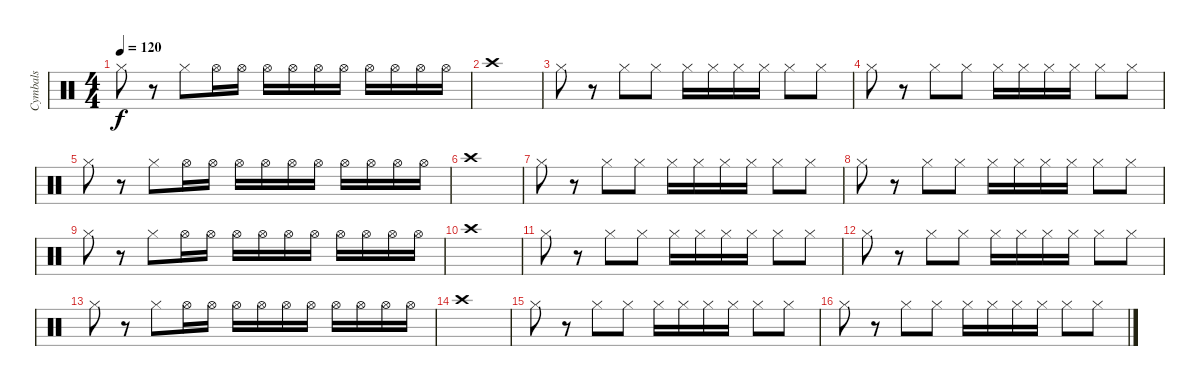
\track ("Cymbals" "Cymbals") {instrument percussion}
\staff {score}
\articulation defaults
\ts (4 4)
\tempo 120
\clef neutral
\ks c "Hi-Hat (closed)".8{dy f volume 8}
r.8 "Hi-Hat (closed)".8 "Hi-Hat (open)".16 "Hi-Hat (open)".16 "Hi-Hat (open)".16 "Hi-Hat (open)".16 "Hi-Hat (open)".16 "Hi-Hat (open)".16 "Hi-Hat (open)".16 "Hi-Hat (open)".16 "Hi-Hat (open)".16 "Hi-Hat (open)".16 |
"Crash high (hit)".1 |
"Hi-Hat (closed)".8 r.8 "Hi-Hat (closed)".8 "Hi-Hat (closed)".8 "Hi-Hat (closed)".16 "Hi-Hat (closed)".16 "Hi-Hat (closed)".16 "Hi-Hat (closed)".16 "Hi-Hat (closed)".8 "Hi-Hat (closed)".8 |
"Hi-Hat (closed)".8 r.8 "Hi-Hat (closed)".8 "Hi-Hat (closed)".8 "Hi-Hat (closed)".16 "Hi-Hat (closed)".16 "Hi-Hat (closed)".16 "Hi-Hat (closed)".16 "Hi-Hat (closed)".8 "Hi-Hat (closed)".8 |
"Hi-Hat (closed)".8{volume 6} r.8 "Hi-Hat (closed)".8 "Hi-Hat (open)".16 "Hi-Hat (open)".16 "Hi-Hat (open)".16 "Hi-Hat (open)".16 "Hi-Hat (open)".16 "Hi-Hat (open)".16 "Hi-Hat (open)".16 "Hi-Hat (open)".16 "Hi-Hat (open)".16 "Hi-Hat (open)".16 |
"Crash high (hit)".1 |
"Hi-Hat (closed)".8 r.8 "Hi-Hat (closed)".8 "Hi-Hat (closed)".8 "Hi-Hat (closed)".16 "Hi-Hat (closed)".16 "Hi-Hat (closed)".16 "Hi-Hat (closed)".16 "Hi-Hat (closed)".8 "Hi-Hat (closed)".8 |
"Hi-Hat (closed)".8 r.8 "Hi-Hat (closed)".8 "Hi-Hat (closed)".8 "Hi-Hat (closed)".16 "Hi-Hat (closed)".16 "Hi-Hat (closed)".16 "Hi-Hat (closed)".16 "Hi-Hat (closed)".8 "Hi-Hat (closed)".8 |
"Hi-Hat (closed)".8{volume 4} r.8 "Hi-Hat (closed)".8 "Hi-Hat (open)".16 "Hi-Hat (open)".16 "Hi-Hat (open)".16 "Hi-Hat (open)".16 "Hi-Hat (open)".16 "Hi-Hat (open)".16 "Hi-Hat (open)".16 "Hi-Hat (open)".16 "Hi-Hat (open)".16 "Hi-Hat (open)".16 |
"Crash high (hit)".1 |
"Hi-Hat (closed)".8 r.8 "Hi-Hat (closed)".8 "Hi-Hat (closed)".8 "Hi-Hat (closed)".16 "Hi-Hat (closed)".16 "Hi-Hat (closed)".16 "Hi-Hat (closed)".16 "Hi-Hat (closed)".8 "Hi-Hat (closed)".8 |
"Hi-Hat (closed)".8 r.8 "Hi-Hat (closed)".8 "Hi-Hat (closed)".8 "Hi-Hat (closed)".16 "Hi-Hat (closed)".16 "Hi-Hat (closed)".16 "Hi-Hat (closed)".16 "Hi-Hat (closed)".8 "Hi-Hat (closed)".8 |
"Hi-Hat (closed)".8{volume 2} r.8 "Hi-Hat (closed)".8 "Hi-Hat (open)".16 "Hi-Hat (open)".16 "Hi-Hat (open)".16 "Hi-Hat (open)".16 "Hi-Hat (open)".16 "Hi-Hat (open)".16 "Hi-Hat (open)".16 "Hi-Hat (open)".16 "Hi-Hat (open)".16 "Hi-Hat (open)".16 |
"Crash high (hit)".1 |
"Hi-Hat (closed)".8 r.8 "Hi-Hat (closed)".8 "Hi-Hat (closed)".8 "Hi-Hat (closed)".16 "Hi-Hat (closed)".16 "Hi-Hat (closed)".16 "Hi-Hat (closed)".16 "Hi-Hat (closed)".8 "Hi-Hat (closed)".8 |
"Hi-Hat (closed)".8 r.8 "Hi-Hat (closed)".8 "Hi-Hat (closed)".8 "Hi-Hat (closed)".16 "Hi-Hat (closed)".16 "Hi-Hat (closed)".16 "Hi-Hat (closed)".16 "Hi-Hat (closed)".8 "Hi-Hat (closed)".8
